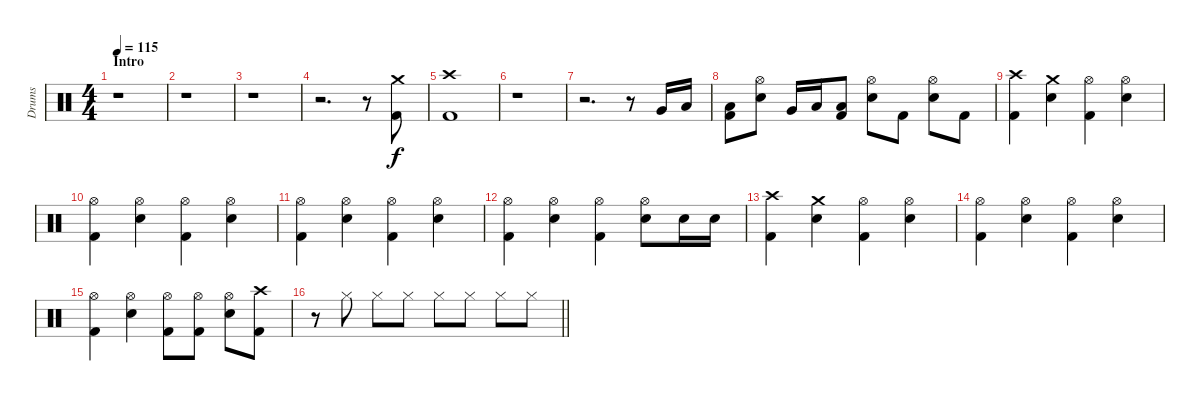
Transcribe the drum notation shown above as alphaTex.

\track ("Drums" "Drums") {instrument percussion}
\staff {score}
\articulation defaults
\ts (4 4)
\section ("" "Intro")
\tempo 115
\clef neutral
\ks c
r.1{dy f} |
r.1 |
r.1 |
r.2{d} r.8 ("Crash medium (hit)" "Kick (hit) 2").8 |
("Crash high (hit)" "Kick (hit) 2").1 |
r.1 |
r.2{d} r.8 "Very Low Tom (hit)".16 "Low Floor Tom (hit)".16 |
("Low Floor Tom (hit)" "Kick (hit) 2").8 ("Hi-Hat (open)" "Snare (hit) 2").8 "Very Low Tom (hit)".16 "Low Floor Tom (hit)".16 ("Low Floor Tom (hit)" "Kick (hit) 2").8 ("Hi-Hat (open)" "Snare (hit) 2").8 "Kick (hit) 2".8 ("Hi-Hat (open)" "Snare (hit) 2").8 "Kick (hit) 2".8 |
("Crash high (hit)" "Kick (hit) 2").4 ("Crash medium (hit)" "Snare (hit) 2").4 ("Hi-Hat (open)" "Kick (hit) 2").4 ("Hi-Hat (open)" "Snare (hit) 2").4 |
("Hi-Hat (open)" "Kick (hit) 2").4 ("Hi-Hat (open)" "Snare (hit) 2").4 ("Hi-Hat (open)" "Kick (hit) 2").4 ("Hi-Hat (open)" "Snare (hit) 2").4 |
("Hi-Hat (open)" "Kick (hit) 2").4 ("Hi-Hat (open)" "Snare (hit) 2").4 ("Hi-Hat (open)" "Kick (hit) 2").4 ("Hi-Hat (open)" "Snare (hit) 2").4 |
("Hi-Hat (open)" "Kick (hit) 2").4 ("Hi-Hat (open)" "Snare (hit) 2").4 ("Hi-Hat (open)" "Kick (hit) 2").4 ("Hi-Hat (open)" "Snare (hit) 2").8 "Snare (hit) 2".16 "Snare (hit) 2".16 |
("Crash high (hit)" "Kick (hit) 2").4 ("Crash medium (hit)" "Snare (hit) 2").4 ("Hi-Hat (open)" "Kick (hit) 2").4 ("Hi-Hat (open)" "Snare (hit) 2").4 |
("Hi-Hat (open)" "Kick (hit) 2").4 ("Hi-Hat (open)" "Snare (hit) 2").4 ("Hi-Hat (open)" "Kick (hit) 2").4 ("Hi-Hat (open)" "Snare (hit) 2").4 |
("Hi-Hat (open)" "Kick (hit) 2").4 ("Hi-Hat (open)" "Snare (hit) 2").4 ("Hi-Hat (open)" "Kick (hit) 2").8 ("Hi-Hat (open)" "Kick (hit) 2").8 ("Hi-Hat (open)" "Snare (hit) 2").8 ("Crash high (hit)" "Kick (hit) 2").8 |
\barLineRight lightlight
r.8 "Hi-Hat (closed)".8 "Hi-Hat (closed)".8 "Hi-Hat (closed)".8 "Hi-Hat (closed)".8 "Hi-Hat (closed)".8 "Hi-Hat (closed)".8 "Hi-Hat (closed)".8
